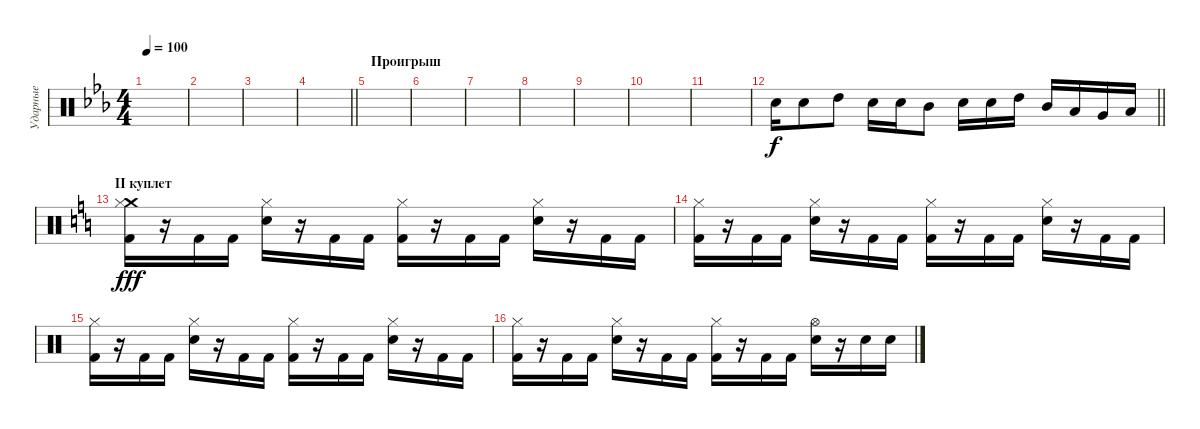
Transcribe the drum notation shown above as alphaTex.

\track ("Ударные" "Ударные") {instrument percussion}
\staff {score}
\articulation defaults
\ts (4 4)
\tempo 100
\clef neutral
\ks cminor
|
|
|
\barLineRight lightlight
|
\section ("" "Проигрыш")
|
|
|
|
|
|
|
\barLineRight lightlight "Electric Snare (hit)".16 "Electric Snare (hit)".8 "High Tom (hit)".8 "Electric Snare (hit)".16 "Electric Snare (hit)".16 "Mid Tom (hit)".8 "Electric Snare (hit)".16 "Electric Snare (hit)".16 "High Tom (hit)".16 "Mid Tom (hit)".16 "Low Tom (hit)".16 "Very Low Tom (hit)".16 "Low Floor Tom (hit)".16
|
\section ("" "II куплет")
\ks aminor
("Crash medium (hit)" "Kick (hit) 2" "Hi-Hat (closed)").16{dy fff} r.16 "Kick (hit) 2".16 "Kick (hit) 2".16 ("Electric Snare (hit)" "Hi-Hat (closed)").16 r.16 "Kick (hit) 2".16 "Kick (hit) 2".16 ("Kick (hit) 2" "Hi-Hat (closed)").16 r.16 "Kick (hit) 2".16 "Kick (hit) 2".16 ("Electric Snare (hit)" "Hi-Hat (closed)").16 r.16 "Kick (hit) 2".16 "Kick (hit) 2".16 |
("Kick (hit) 2" "Hi-Hat (closed)").16 r.16 "Kick (hit) 2".16 "Kick (hit) 2".16 ("Electric Snare (hit)" "Hi-Hat (closed)").16 r.16 "Kick (hit) 2".16 "Kick (hit) 2".16 ("Kick (hit) 2" "Hi-Hat (closed)").16 r.16 "Kick (hit) 2".16 "Kick (hit) 2".16 ("Electric Snare (hit)" "Hi-Hat (closed)").16 r.16 "Kick (hit) 2".16 "Kick (hit) 2".16 |
("Kick (hit) 2" "Hi-Hat (closed)").16 r.16 "Kick (hit) 2".16 "Kick (hit) 2".16 ("Electric Snare (hit)" "Hi-Hat (closed)").16 r.16 "Kick (hit) 2".16 "Kick (hit) 2".16 ("Kick (hit) 2" "Hi-Hat (closed)").16 r.16 "Kick (hit) 2".16 "Kick (hit) 2".16 ("Electric Snare (hit)" "Hi-Hat (closed)").16 r.16 "Kick (hit) 2".16 "Kick (hit) 2".16 |
("Kick (hit) 2" "Hi-Hat (closed)").16 r.16 "Kick (hit) 2".16 "Kick (hit) 2".16 ("Electric Snare (hit)" "Hi-Hat (closed)").16 r.16 "Kick (hit) 2".16 "Kick (hit) 2".16 ("Kick (hit) 2" "Hi-Hat (closed)").16 r.16 "Kick (hit) 2".16 "Kick (hit) 2".16 ("Electric Snare (hit)" "Hi-Hat (open)").16 r.16 "Electric Snare (hit)".16 "Electric Snare (hit)".16
